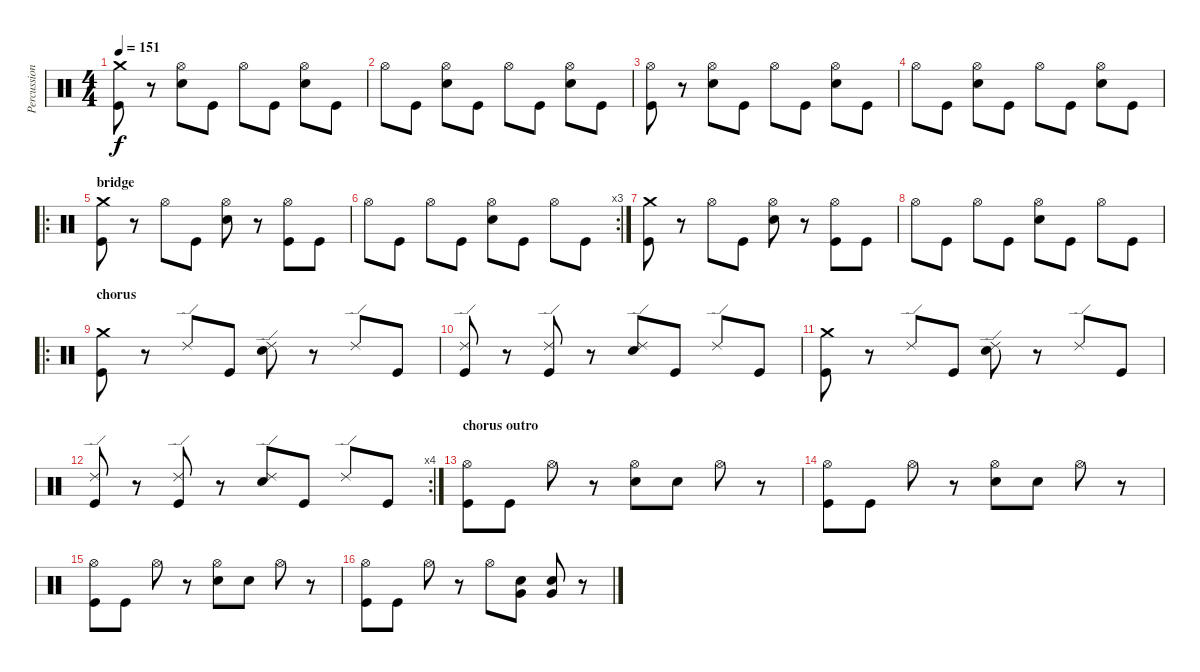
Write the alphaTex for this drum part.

\track ("Percussion" "Percussion") {instrument percussion}
\staff {score}
\articulation defaults
\ts (4 4)
\tempo 151
\clef neutral
\ks c
("Crash medium (hit)" "Kick (hit)").8{dy f} r.8 ("Hi-Hat (open)" "Electric Snare (hit)").8 "Kick (hit)".8 "Hi-Hat (open)".8 "Kick (hit)".8 ("Hi-Hat (open)" "Electric Snare (hit)").8 "Kick (hit)".8 |
"Hi-Hat (open)".8 "Kick (hit)".8 ("Hi-Hat (open)" "Electric Snare (hit)").8 "Kick (hit)".8 "Hi-Hat (open)".8 "Kick (hit)".8 ("Hi-Hat (open)" "Electric Snare (hit)").8 "Kick (hit)".8 |
("Hi-Hat (open)" "Kick (hit)").8 r.8 ("Hi-Hat (open)" "Electric Snare (hit)").8 "Kick (hit)".8 "Hi-Hat (open)".8 "Kick (hit)".8 ("Hi-Hat (open)" "Electric Snare (hit)").8 "Kick (hit)".8 |
"Hi-Hat (open)".8 "Kick (hit)".8 ("Hi-Hat (open)" "Electric Snare (hit)").8 "Kick (hit)".8 "Hi-Hat (open)".8 "Kick (hit)".8 ("Hi-Hat (open)" "Electric Snare (hit)").8 "Kick (hit)".8 |
\ro
\section ("" "bridge")
("Crash medium (hit)" "Kick (hit)").8 r.8 "Hi-Hat (open)".8 "Kick (hit)".8 ("Hi-Hat (open)" "Electric Snare (hit)").8 r.8 ("Hi-Hat (open)" "Kick (hit)").8 "Kick (hit)".8 |
\rc 3 "Hi-Hat (open)".8 "Kick (hit)".8 "Hi-Hat (open)".8 "Kick (hit)".8
("Hi-Hat (open)" "Electric Snare (hit)").8 "Kick (hit)".8 "Hi-Hat (open)".8 "Kick (hit)".8 |
("Crash medium (hit)" "Kick (hit)").8 r.8 "Hi-Hat (open)".8 "Kick (hit)".8 ("Hi-Hat (open)" "Electric Snare (hit)").8 r.8 ("Hi-Hat (open)" "Kick (hit)").8 "Kick (hit)".8 |
"Hi-Hat (open)".8 "Kick (hit)".8 "Hi-Hat (open)".8 "Kick (hit)".8 ("Hi-Hat (open)" "Electric Snare (hit)").8 "Kick (hit)".8 "Hi-Hat (open)".8 "Kick (hit)".8 |
\ro
\section ("" "chorus")
("Crash medium (hit)" "Kick (hit)").8 r.8 "Ride (edge) 2".8 "Kick (hit)".8 ("Ride (edge) 2" "Electric Snare (hit)").8 r.8 "Ride (edge) 2".8 "Kick (hit)".8 |
("Ride (edge) 2" "Kick (hit)").8 r.8 ("Ride (edge) 2" "Kick (hit)").8 r.8 ("Ride (edge) 2" "Electric Snare (hit)").8 "Kick (hit)".8 "Ride (edge) 2".8 "Kick (hit)".8 |
("Crash medium (hit)" "Kick (hit)").8 r.8 "Ride (edge) 2".8 "Kick (hit)".8 ("Ride (edge) 2" "Electric Snare (hit)").8 r.8 "Ride (edge) 2".8 "Kick (hit)".8 |
\rc 4
("Ride (edge) 2" "Kick (hit)").8 r.8 ("Ride (edge) 2" "Kick (hit)").8 r.8 ("Ride (edge) 2" "Electric Snare (hit)").8 "Kick (hit)".8 "Ride (edge) 2".8 "Kick (hit)".8 |
\section ("" "chorus outro")
("Hi-Hat (open)" "Kick (hit)").8 "Kick (hit)".8 "Hi-Hat (open)".8 r.8 ("Hi-Hat (open)" "Electric Snare (hit)").8 "Electric Snare (hit)".8 "Hi-Hat (open)".8 r.8 |
("Hi-Hat (open)" "Kick (hit)").8 "Kick (hit)".8 "Hi-Hat (open)".8 r.8 ("Hi-Hat (open)" "Electric Snare (hit)").8 "Electric Snare (hit)".8 "Hi-Hat (open)".8 r.8 |
("Hi-Hat (open)" "Kick (hit)").8 "Kick (hit)".8 "Hi-Hat (open)".8 r.8 ("Hi-Hat (open)" "Electric Snare (hit)").8 "Electric Snare (hit)".8 "Hi-Hat (open)".8 r.8 |
("Hi-Hat (open)" "Kick (hit)").8 "Kick (hit)".8 "Hi-Hat (open)".8 r.8 "Hi-Hat (open)".8 ("Very Low Tom (hit)" "Electric Snare (hit)").8 ("Very Low Tom (hit)" "Electric Snare (hit)").8 r.8
